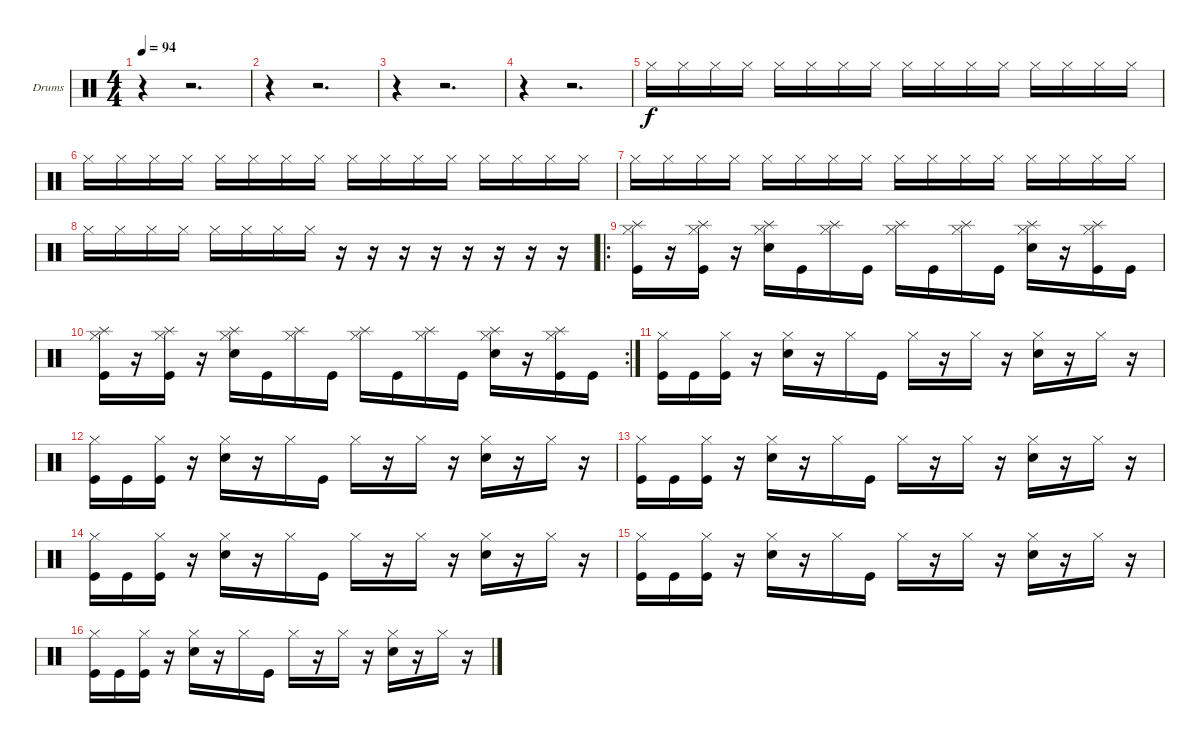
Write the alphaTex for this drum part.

\defaultSystemsLayout 4
\bracketExtendMode groupsimilarinstruments
\firstSystemTrackNameOrientation horizontal
\otherSystemsTrackNameOrientation horizontal
\track ("Lori Peters (Drums)" "Drums") {instrument percussion}
\staff {score}
\articulation defaults
\ts (4 4)
\tempo 94
\clef neutral
\scale
0.474178
\ks c
r.4{dy f} r.2{d} |
\scale
0.262911 r.4 r.2{d} |
\scale
0.262911 r.4 r.2{d} |
\scale
0.333333 r.4 r.2{d} |
\scale
0.333333 "Hi-Hat (closed)".16 "Hi-Hat (closed)".16 "Hi-Hat (closed)".16 "Hi-Hat (closed)".16 "Hi-Hat (closed)".16 "Hi-Hat (closed)".16 "Hi-Hat (closed)".16 "Hi-Hat (closed)".16 "Hi-Hat (closed)".16 "Hi-Hat (closed)".16 "Hi-Hat (closed)".16 "Hi-Hat (closed)".16 "Hi-Hat (closed)".16 "Hi-Hat (closed)".16 "Hi-Hat (closed)".16 "Hi-Hat (closed)".16 |
\scale
0.333333 "Hi-Hat (closed)".16 "Hi-Hat (closed)".16 "Hi-Hat (closed)".16 "Hi-Hat (closed)".16 "Hi-Hat (closed)".16 "Hi-Hat (closed)".16 "Hi-Hat (closed)".16 "Hi-Hat (closed)".16 "Hi-Hat (closed)".16 "Hi-Hat (closed)".16 "Hi-Hat (closed)".16 "Hi-Hat (closed)".16 "Hi-Hat (closed)".16 "Hi-Hat (closed)".16 "Hi-Hat (closed)".16 "Hi-Hat (closed)".16 |
\scale
0.311111 "Hi-Hat (closed)".16 "Hi-Hat (closed)".16 "Hi-Hat (closed)".16 "Hi-Hat (closed)".16 "Hi-Hat (closed)".16 "Hi-Hat (closed)".16 "Hi-Hat (closed)".16 "Hi-Hat (closed)".16 "Hi-Hat (closed)".16 "Hi-Hat (closed)".16 "Hi-Hat (closed)".16 "Hi-Hat (closed)".16 "Hi-Hat (closed)".16 "Hi-Hat (closed)".16 "Hi-Hat (closed)".16 "Hi-Hat (closed)".16 |
\scale
0.311111 "Hi-Hat (closed)".16 "Hi-Hat (closed)".16 "Hi-Hat (closed)".16 "Hi-Hat (closed)".16 "Hi-Hat (closed)".16 "Hi-Hat (closed)".16 "Hi-Hat (closed)".16 "Hi-Hat (closed)".16 r.16 r.16 r.16 r.16 r.16 r.16 r.16 r.16 |
\ro
\scale
0.377778 ("Hi-Hat (closed)" "Kick (hit)" "Splash (hit)").16 r.16 ("Hi-Hat (closed)" "Kick (hit)" "Splash (hit)").16 r.16 ("Hi-Hat (closed)" "Snare (hit) 2" "Splash (hit)").16 "Kick (hit)".16 ("Hi-Hat (closed)" "Splash (hit)").16 "Kick (hit)".16 ("Hi-Hat (closed)" "Splash (hit)").16 "Kick (hit)".16 ("Hi-Hat (closed)" "Splash (hit)").16 "Kick (hit)".16 ("Hi-Hat (closed)" "Snare (hit) 2" "Splash (hit)").16 r.16 ("Hi-Hat (closed)" "Kick (hit)" "Splash (hit)").16 "Kick (hit)".16 |
\rc 2
\scale
0.322917 ("Hi-Hat (closed)" "Kick (hit)" "Splash (hit)").16 r.16 ("Hi-Hat (closed)" "Kick (hit)" "Splash (hit)").16 r.16 ("Hi-Hat (closed)" "Snare (hit) 2" "Splash (hit)").16 "Kick (hit)".16 ("Hi-Hat (closed)" "Splash (hit)").16 "Kick (hit)".16 ("Hi-Hat (closed)" "Splash (hit)").16 "Kick (hit)".16 ("Hi-Hat (closed)" "Splash (hit)").16 "Kick (hit)".16 ("Hi-Hat (closed)" "Snare (hit) 2" "Splash (hit)").16 r.16 ("Hi-Hat (closed)" "Kick (hit)" "Splash (hit)").16 "Kick (hit)".16 |
\scale
0.354167 ("Hi-Hat (closed)" "Kick (hit)").16 "Kick (hit)".16 ("Hi-Hat (closed)" "Kick (hit)").16 r.16 ("Hi-Hat (closed)" "Snare (hit) 2").16 r.16 "Hi-Hat (closed)".16 "Kick (hit)".16 "Hi-Hat (closed)".16 r.16 "Hi-Hat (closed)".16 r.16 ("Hi-Hat (closed)" "Snare (hit) 2").16 r.16 "Hi-Hat (closed)".16 r.16 |
\scale
0.322917 ("Hi-Hat (closed)" "Kick (hit)").16 "Kick (hit)".16 ("Hi-Hat (closed)" "Kick (hit)").16 r.16 ("Hi-Hat (closed)" "Snare (hit) 2").16 r.16 "Hi-Hat (closed)".16 "Kick (hit)".16 "Hi-Hat (closed)".16 r.16 "Hi-Hat (closed)".16 r.16 ("Hi-Hat (closed)" "Snare (hit) 2").16 r.16 "Hi-Hat (closed)".16 r.16 |
("Hi-Hat (closed)" "Kick (hit)").16 "Kick (hit)".16 ("Hi-Hat (closed)" "Kick (hit)").16 r.16 ("Hi-Hat (closed)" "Snare (hit) 2").16 r.16 "Hi-Hat (closed)".16 "Kick (hit)".16 "Hi-Hat (closed)".16 r.16 "Hi-Hat (closed)".16 r.16 ("Hi-Hat (closed)" "Snare (hit) 2").16 r.16 "Hi-Hat (closed)".16 r.16 |
("Hi-Hat (closed)" "Kick (hit)").16 "Kick (hit)".16 ("Hi-Hat (closed)" "Kick (hit)").16 r.16 ("Hi-Hat (closed)" "Snare (hit) 2").16 r.16 "Hi-Hat (closed)".16 "Kick (hit)".16 "Hi-Hat (closed)".16 r.16 "Hi-Hat (closed)".16 r.16 ("Hi-Hat (closed)" "Snare (hit) 2").16 r.16 "Hi-Hat (closed)".16 r.16 |
("Hi-Hat (closed)" "Kick (hit)").16 "Kick (hit)".16 ("Hi-Hat (closed)" "Kick (hit)").16 r.16 ("Hi-Hat (closed)" "Snare (hit) 2").16 r.16 "Hi-Hat (closed)".16 "Kick (hit)".16 "Hi-Hat (closed)".16 r.16 "Hi-Hat (closed)".16 r.16 ("Hi-Hat (closed)" "Snare (hit) 2").16 r.16 "Hi-Hat (closed)".16 r.16 |
("Hi-Hat (closed)" "Kick (hit)").16 "Kick (hit)".16 ("Hi-Hat (closed)" "Kick (hit)").16 r.16 ("Hi-Hat (closed)" "Snare (hit) 2").16 r.16 "Hi-Hat (closed)".16 "Kick (hit)".16 "Hi-Hat (closed)".16 r.16 "Hi-Hat (closed)".16 r.16 ("Hi-Hat (closed)" "Snare (hit) 2").16 r.16 "Hi-Hat (closed)".16 r.16
